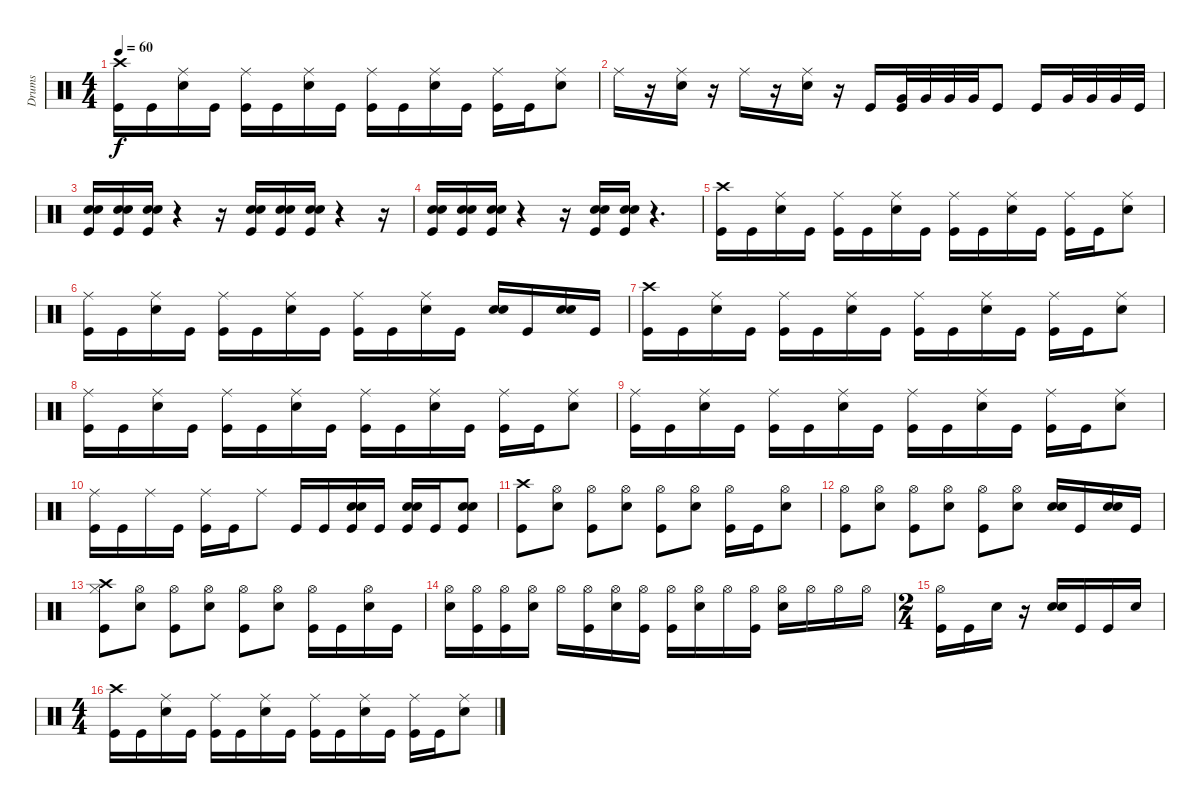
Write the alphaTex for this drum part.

\track ("Drums" "Drums") {instrument percussion}
\staff {score}
\articulation defaults
\ts (4 4)
\tempo 60
\clef neutral
\ks c
("Crash high (hit)" "Kick (hit)").16{dy f} "Kick (hit)".16 ("Ride (middle)" "Snare (hit) 2").16 "Kick (hit)".16 ("Ride (middle)" "Kick (hit)").16 "Kick (hit)".16 ("Ride (middle)" "Snare (hit) 2").16 "Kick (hit)".16 ("Ride (middle)" "Kick (hit)").16 "Kick (hit)".16 ("Ride (middle)" "Snare (hit) 2").16 "Kick (hit)".16 ("Ride (middle)" "Kick (hit)").16 "Kick (hit)".16 ("Ride (middle)" "Snare (hit) 2").8 |
"Ride (middle)".16 r.16 ("Ride (middle)" "Snare (hit) 2").16 r.16 "Ride (middle)".16 r.16 ("Ride (middle)" "Snare (hit) 2").16 r.16 "Kick (hit)".16 ("Very Low Tom (hit)" "Kick (hit)").32 "Very Low Tom (hit)".32 "Very Low Tom (hit)".32 "Very Low Tom (hit)".32 "Kick (hit)".8 "Kick (hit)".16 "Very Low Tom (hit)".32 "Very Low Tom (hit)".32 "Very Low Tom (hit)".32 "Kick (hit)".32 |
("Snare (hit) 2" "Snare (hit) 2" "Kick (hit)").16 ("Snare (hit) 2" "Snare (hit) 2" "Kick (hit)").16 ("Snare (hit) 2" "Snare (hit) 2" "Kick (hit)").16 r.4 r.16 ("Snare (hit) 2" "Snare (hit) 2" "Kick (hit)").16 ("Snare (hit) 2" "Snare (hit) 2" "Kick (hit)").16 ("Snare (hit) 2" "Snare (hit) 2" "Kick (hit)").16 r.4 r.16 |
("Snare (hit) 2" "Snare (hit) 2" "Kick (hit)").16 ("Snare (hit) 2" "Snare (hit) 2" "Kick (hit)").16 ("Snare (hit) 2" "Snare (hit) 2" "Kick (hit)").16 r.4 r.16 ("Snare (hit) 2" "Snare (hit) 2" "Kick (hit)").16 ("Snare (hit) 2" "Snare (hit) 2" "Kick (hit)").16 r.4{d} |
("Crash high (hit)" "Kick (hit)").16 "Kick (hit)".16 ("Ride (middle)" "Snare (hit) 2").16 "Kick (hit)".16 ("Ride (middle)" "Kick (hit)").16 "Kick (hit)".16 ("Ride (middle)" "Snare (hit) 2").16 "Kick (hit)".16 ("Ride (middle)" "Kick (hit)").16 "Kick (hit)".16 ("Ride (middle)" "Snare (hit) 2").16 "Kick (hit)".16 ("Ride (middle)" "Kick (hit)").16 "Kick (hit)".16 ("Ride (middle)" "Snare (hit) 2").8 |
("Ride (middle)" "Kick (hit)").16 "Kick (hit)".16 ("Ride (middle)" "Snare (hit) 2").16 "Kick (hit)".16 ("Ride (middle)" "Kick (hit)").16 "Kick (hit)".16 ("Ride (middle)" "Snare (hit) 2").16 "Kick (hit)".16 ("Ride (middle)" "Kick (hit)").16 "Kick (hit)".16 ("Ride (middle)" "Snare (hit) 2").16 "Kick (hit)".16 ("Snare (hit) 2" "Snare (hit) 2").16 "Kick (hit)".16 ("Snare (hit) 2" "Snare (hit) 2").16 "Kick (hit)".16 |
("Crash high (hit)" "Kick (hit)").16 "Kick (hit)".16 ("Ride (middle)" "Snare (hit) 2").16 "Kick (hit)".16 ("Ride (middle)" "Kick (hit)").16 "Kick (hit)".16 ("Ride (middle)" "Snare (hit) 2").16 "Kick (hit)".16 ("Ride (middle)" "Kick (hit)").16 "Kick (hit)".16 ("Ride (middle)" "Snare (hit) 2").16 "Kick (hit)".16 ("Ride (middle)" "Kick (hit)").16 "Kick (hit)".16 ("Ride (middle)" "Snare (hit) 2").8 |
("Ride (middle)" "Kick (hit)").16 "Kick (hit)".16 ("Ride (middle)" "Snare (hit) 2").16 "Kick (hit)".16 ("Ride (middle)" "Kick (hit)").16 "Kick (hit)".16 ("Ride (middle)" "Snare (hit) 2").16 "Kick (hit)".16 ("Ride (middle)" "Kick (hit)").16 "Kick (hit)".16 ("Ride (middle)" "Snare (hit) 2").16 "Kick (hit)".16 ("Ride (middle)" "Kick (hit)").16 "Kick (hit)".16 ("Ride (middle)" "Snare (hit) 2").8 |
("Ride (middle)" "Kick (hit)").16 "Kick (hit)".16 ("Ride (middle)" "Snare (hit) 2").16 "Kick (hit)".16 ("Ride (middle)" "Kick (hit)").16 "Kick (hit)".16 ("Ride (middle)" "Snare (hit) 2").16 "Kick (hit)".16 ("Ride (middle)" "Kick (hit)").16 "Kick (hit)".16 ("Ride (middle)" "Snare (hit) 2").16 "Kick (hit)".16 ("Ride (middle)" "Kick (hit)").16 "Kick (hit)".16 ("Ride (middle)" "Snare (hit) 2").8 |
("Ride (middle)" "Kick (hit)").16 "Kick (hit)".16 "Ride (middle)".16 "Kick (hit)".16 ("Ride (middle)" "Kick (hit)").16 "Kick (hit)".16 "Ride (middle)".8 "Kick (hit)".16 "Kick (hit)".16 ("Snare (hit) 2" "Snare (hit) 2" "Kick (hit)").16 "Kick (hit)".16 ("Snare (hit) 2" "Snare (hit) 2" "Kick (hit)").16 "Kick (hit)".16 ("Snare (hit) 2" "Snare (hit) 2" "Kick (hit)").8 |
("Crash high (hit)" "Kick (hit)").8 ("Hi-Hat (open)" "Snare (hit) 2").8 ("Hi-Hat (open)" "Kick (hit)").8 ("Hi-Hat (open)" "Snare (hit) 2").8 ("Hi-Hat (open)" "Kick (hit)").8 ("Hi-Hat (open)" "Snare (hit) 2").8 ("Hi-Hat (open)" "Kick (hit)").16 "Kick (hit)".16 ("Hi-Hat (open)" "Snare (hit) 2").8 |
("Hi-Hat (open)" "Kick (hit)").8 ("Hi-Hat (open)" "Snare (hit) 2").8 ("Hi-Hat (open)" "Kick (hit)").8 ("Hi-Hat (open)" "Snare (hit) 2").8 ("Hi-Hat (open)" "Kick (hit)").8 ("Hi-Hat (open)" "Snare (hit) 2").8 ("Snare (hit) 2" "Snare (hit) 2").16 "Kick (hit)".16 ("Snare (hit) 2" "Snare (hit) 2").16 "Kick (hit)".16 |
("Crash high (hit)" "Hi-Hat (closed)" "Kick (hit)").8 ("Hi-Hat (open)" "Snare (hit) 2").8 ("Hi-Hat (open)" "Kick (hit)").8 ("Hi-Hat (open)" "Snare (hit) 2").8 ("Hi-Hat (open)" "Kick (hit)").8 ("Hi-Hat (open)" "Snare (hit) 2").8 ("Hi-Hat (open)" "Kick (hit)").16 "Kick (hit)".16 ("Hi-Hat (open)" "Snare (hit) 2").16 "Kick (hit)".16 |
("Hi-Hat (open)" "Snare (hit) 2").16 ("Hi-Hat (open)" "Kick (hit)").16 ("Hi-Hat (open)" "Kick (hit)").16 ("Hi-Hat (open)" "Snare (hit) 2").16 "Hi-Hat (open)".16 ("Hi-Hat (open)" "Kick (hit)").16 ("Hi-Hat (open)" "Snare (hit) 2").16 ("Hi-Hat (open)" "Kick (hit)").16 ("Hi-Hat (open)" "Kick (hit)").16 ("Hi-Hat (open)" "Snare (hit) 2").16 "Hi-Hat (open)".16 ("Hi-Hat (open)" "Kick (hit)").16 ("Hi-Hat (open)" "Snare (hit) 2").16 "Hi-Hat (open)".16 "Hi-Hat (open)".16 "Hi-Hat (open)".16 |
\ts (2 4)
("Hi-Hat (open)" "Kick (hit)").16 "Kick (hit)".16 "Snare (hit) 2".16 r.16 ("Snare (hit) 2" "Snare (hit) 2").16 "Kick (hit)".16 "Kick (hit)".16 "Snare (hit) 2".16 |
\ts (4 4)
("Crash high (hit)" "Kick (hit)").16 "Kick (hit)".16 ("Ride (middle)" "Snare (hit) 2").16 "Kick (hit)".16 ("Ride (middle)" "Kick (hit)").16 "Kick (hit)".16 ("Ride (middle)" "Snare (hit) 2").16 "Kick (hit)".16 ("Ride (middle)" "Kick (hit)").16 "Kick (hit)".16 ("Ride (middle)" "Snare (hit) 2").16 "Kick (hit)".16 ("Ride (middle)" "Kick (hit)").16 "Kick (hit)".16 ("Ride (middle)" "Snare (hit) 2").8
